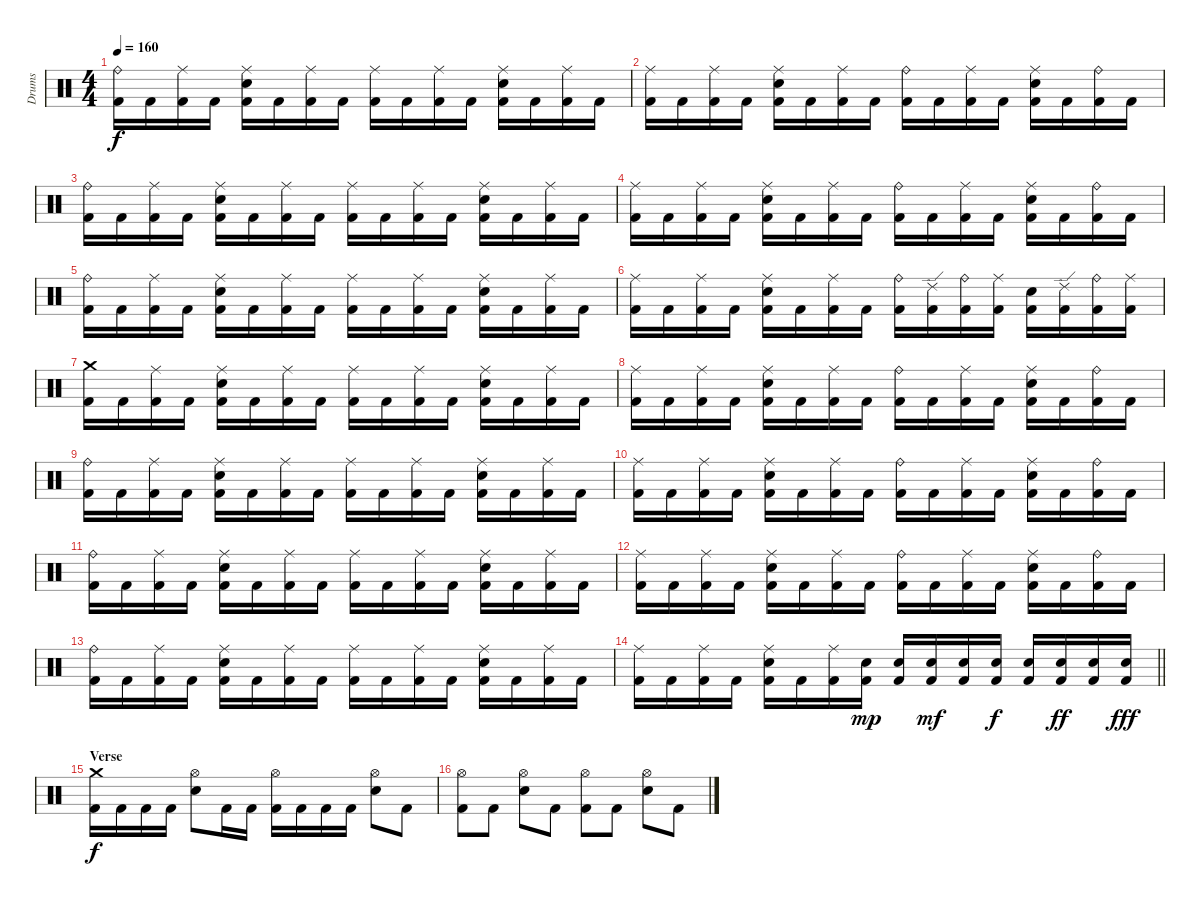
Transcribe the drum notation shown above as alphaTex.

\track ("Drums" "Drums") {instrument percussion}
\staff {score}
\articulation defaults
\ts (4 4)
\tempo 160
\clef neutral
\ks c
("Ride (bell)" "Kick (hit) 2").16{dy f} "Kick (hit) 2".16 ("Ride (middle)" "Kick (hit) 2").16 "Kick (hit) 2".16 ("Ride (middle)" "Snare (hit) 2" "Kick (hit) 2").16 "Kick (hit) 2".16 ("Ride (middle)" "Kick (hit) 2").16 "Kick (hit) 2".16 ("Ride (middle)" "Kick (hit) 2").16 "Kick (hit) 2".16 ("Ride (middle)" "Kick (hit) 2").16 "Kick (hit) 2".16 ("Ride (middle)" "Snare (hit) 2" "Kick (hit) 2").16 "Kick (hit) 2".16 ("Ride (middle)" "Kick (hit) 2").16 "Kick (hit) 2".16 |
("Ride (middle)" "Kick (hit) 2").16 "Kick (hit) 2".16 ("Ride (middle)" "Kick (hit) 2").16 "Kick (hit) 2".16 ("Ride (middle)" "Snare (hit) 2" "Kick (hit) 2").16 "Kick (hit) 2".16 ("Ride (middle)" "Kick (hit) 2").16 "Kick (hit) 2".16 ("Ride (bell)" "Kick (hit) 2").16 "Kick (hit) 2".16 ("Ride (middle)" "Kick (hit) 2").16 "Kick (hit) 2".16 ("Ride (middle)" "Snare (hit) 2" "Kick (hit) 2").16 "Kick (hit) 2".16 ("Ride (bell)" "Kick (hit) 2").16 "Kick (hit) 2".16 |
("Ride (bell)" "Kick (hit) 2").16 "Kick (hit) 2".16 ("Ride (middle)" "Kick (hit) 2").16 "Kick (hit) 2".16 ("Ride (middle)" "Snare (hit) 2" "Kick (hit) 2").16 "Kick (hit) 2".16 ("Ride (middle)" "Kick (hit) 2").16 "Kick (hit) 2".16 ("Ride (middle)" "Kick (hit) 2").16 "Kick (hit) 2".16 ("Ride (middle)" "Kick (hit) 2").16 "Kick (hit) 2".16 ("Ride (middle)" "Snare (hit) 2" "Kick (hit) 2").16 "Kick (hit) 2".16 ("Ride (middle)" "Kick (hit) 2").16 "Kick (hit) 2".16 |
("Ride (middle)" "Kick (hit) 2").16 "Kick (hit) 2".16 ("Ride (middle)" "Kick (hit) 2").16 "Kick (hit) 2".16 ("Ride (middle)" "Snare (hit) 2" "Kick (hit) 2").16 "Kick (hit) 2".16 ("Ride (middle)" "Kick (hit) 2").16 "Kick (hit) 2".16 ("Ride (bell)" "Kick (hit) 2").16 "Kick (hit) 2".16 ("Ride (middle)" "Kick (hit) 2").16 "Kick (hit) 2".16 ("Ride (middle)" "Snare (hit) 2" "Kick (hit) 2").16 "Kick (hit) 2".16 ("Ride (bell)" "Kick (hit) 2").16 "Kick (hit) 2".16 |
("Ride (bell)" "Kick (hit) 2").16 "Kick (hit) 2".16 ("Ride (middle)" "Kick (hit) 2").16 "Kick (hit) 2".16 ("Ride (middle)" "Snare (hit) 2" "Kick (hit) 2").16 "Kick (hit) 2".16 ("Ride (middle)" "Kick (hit) 2").16 "Kick (hit) 2".16 ("Ride (middle)" "Kick (hit) 2").16 "Kick (hit) 2".16 ("Ride (middle)" "Kick (hit) 2").16 "Kick (hit) 2".16 ("Ride (middle)" "Snare (hit) 2" "Kick (hit) 2").16 "Kick (hit) 2".16 ("Ride (middle)" "Kick (hit) 2").16 "Kick (hit) 2".16 |
("Ride (middle)" "Kick (hit) 2").16 "Kick (hit) 2".16 ("Ride (middle)" "Kick (hit) 2").16 "Kick (hit) 2".16 ("Ride (middle)" "Snare (hit) 2" "Kick (hit) 2").16 "Kick (hit) 2".16 ("Ride (middle)" "Kick (hit) 2").16 "Kick (hit) 2".16 ("Ride (bell)" "Kick (hit) 2").16 ("Ride (edge) 2" "Kick (hit) 2").16 ("Ride (bell)" "Kick (hit) 2").16 ("Ride (middle)" "Kick (hit) 2").16 ("Snare (hit) 2" "Kick (hit) 2").16 ("Ride (edge) 2" "Kick (hit) 2").16 ("Ride (bell)" "Kick (hit) 2").16 ("Ride (middle)" "Kick (hit) 2").16 |
("Crash medium (hit)" "Kick (hit) 2").16 "Kick (hit) 2".16 ("Ride (middle)" "Kick (hit) 2").16 "Kick (hit) 2".16 ("Ride (middle)" "Snare (hit) 2" "Kick (hit) 2").16 "Kick (hit) 2".16 ("Ride (middle)" "Kick (hit) 2").16 "Kick (hit) 2".16 ("Ride (middle)" "Kick (hit) 2").16 "Kick (hit) 2".16 ("Ride (middle)" "Kick (hit) 2").16 "Kick (hit) 2".16 ("Ride (middle)" "Snare (hit) 2" "Kick (hit) 2").16 "Kick (hit) 2".16 ("Ride (middle)" "Kick (hit) 2").16 "Kick (hit) 2".16 |
("Ride (middle)" "Kick (hit) 2").16 "Kick (hit) 2".16 ("Ride (middle)" "Kick (hit) 2").16 "Kick (hit) 2".16 ("Ride (middle)" "Snare (hit) 2" "Kick (hit) 2").16 "Kick (hit) 2".16 ("Ride (middle)" "Kick (hit) 2").16 "Kick (hit) 2".16 ("Ride (bell)" "Kick (hit) 2").16 "Kick (hit) 2".16 ("Ride (middle)" "Kick (hit) 2").16 "Kick (hit) 2".16 ("Ride (middle)" "Snare (hit) 2" "Kick (hit) 2").16 "Kick (hit) 2".16 ("Ride (bell)" "Kick (hit) 2").16 "Kick (hit) 2".16 |
("Ride (bell)" "Kick (hit) 2").16 "Kick (hit) 2".16 ("Ride (middle)" "Kick (hit) 2").16 "Kick (hit) 2".16 ("Ride (middle)" "Snare (hit) 2" "Kick (hit) 2").16 "Kick (hit) 2".16 ("Ride (middle)" "Kick (hit) 2").16 "Kick (hit) 2".16 ("Ride (middle)" "Kick (hit) 2").16 "Kick (hit) 2".16 ("Ride (middle)" "Kick (hit) 2").16 "Kick (hit) 2".16 ("Ride (middle)" "Snare (hit) 2" "Kick (hit) 2").16 "Kick (hit) 2".16 ("Ride (middle)" "Kick (hit) 2").16 "Kick (hit) 2".16 |
("Ride (middle)" "Kick (hit) 2").16 "Kick (hit) 2".16 ("Ride (middle)" "Kick (hit) 2").16 "Kick (hit) 2".16 ("Ride (middle)" "Snare (hit) 2" "Kick (hit) 2").16 "Kick (hit) 2".16 ("Ride (middle)" "Kick (hit) 2").16 "Kick (hit) 2".16 ("Ride (bell)" "Kick (hit) 2").16 "Kick (hit) 2".16 ("Ride (middle)" "Kick (hit) 2").16 "Kick (hit) 2".16 ("Ride (middle)" "Snare (hit) 2" "Kick (hit) 2").16 "Kick (hit) 2".16 ("Ride (bell)" "Kick (hit) 2").16 "Kick (hit) 2".16 |
("Ride (bell)" "Kick (hit) 2").16 "Kick (hit) 2".16 ("Ride (middle)" "Kick (hit) 2").16 "Kick (hit) 2".16 ("Ride (middle)" "Snare (hit) 2" "Kick (hit) 2").16 "Kick (hit) 2".16 ("Ride (middle)" "Kick (hit) 2").16 "Kick (hit) 2".16 ("Ride (middle)" "Kick (hit) 2").16 "Kick (hit) 2".16 ("Ride (middle)" "Kick (hit) 2").16 "Kick (hit) 2".16 ("Ride (middle)" "Snare (hit) 2" "Kick (hit) 2").16 "Kick (hit) 2".16 ("Ride (middle)" "Kick (hit) 2").16 "Kick (hit) 2".16 |
("Ride (middle)" "Kick (hit) 2").16 "Kick (hit) 2".16 ("Ride (middle)" "Kick (hit) 2").16 "Kick (hit) 2".16 ("Ride (middle)" "Snare (hit) 2" "Kick (hit) 2").16 "Kick (hit) 2".16 ("Ride (middle)" "Kick (hit) 2").16 "Kick (hit) 2".16 ("Ride (bell)" "Kick (hit) 2").16 "Kick (hit) 2".16 ("Ride (middle)" "Kick (hit) 2").16 "Kick (hit) 2".16 ("Ride (middle)" "Snare (hit) 2" "Kick (hit) 2").16 "Kick (hit) 2".16 ("Ride (bell)" "Kick (hit) 2").16 "Kick (hit) 2".16 |
("Ride (bell)" "Kick (hit) 2").16 "Kick (hit) 2".16 ("Ride (middle)" "Kick (hit) 2").16 "Kick (hit) 2".16 ("Ride (middle)" "Snare (hit) 2" "Kick (hit) 2").16 "Kick (hit) 2".16 ("Ride (middle)" "Kick (hit) 2").16 "Kick (hit) 2".16 ("Ride (middle)" "Kick (hit) 2").16 "Kick (hit) 2".16 ("Ride (middle)" "Kick (hit) 2").16 "Kick (hit) 2".16 ("Ride (middle)" "Snare (hit) 2" "Kick (hit) 2").16 "Kick (hit) 2".16 ("Ride (middle)" "Kick (hit) 2").16 "Kick (hit) 2".16 |
\barLineRight lightlight
("Ride (middle)" "Kick (hit) 2").16 "Kick (hit) 2".16 ("Ride (middle)" "Kick (hit) 2").16 "Kick (hit) 2".16 ("Ride (middle)" "Snare (hit) 2" "Kick (hit) 2").16 "Kick (hit) 2".16 ("Ride (middle)" "Kick (hit) 2").16 ("Snare (hit) 2" "Kick (hit) 2").16{dy mp} ("Snare (hit) 2" "Kick (hit) 2").16 ("Snare (hit) 2" "Kick (hit) 2").16{dy mf} ("Snare (hit) 2" "Kick (hit) 2").16 ("Snare (hit) 2" "Kick (hit) 2").16{dy f} ("Snare (hit) 2" "Kick (hit) 2").16 ("Snare (hit) 2" "Kick (hit) 2").16{dy ff} ("Snare (hit) 2" "Kick (hit) 2").16 ("Snare (hit) 2" "Kick (hit) 2").16{dy fff} |
\section ("" "Verse")
("Crash medium (hit)" "Kick (hit) 2").16{dy f} "Kick (hit) 2".16 "Kick (hit) 2".16 "Kick (hit) 2".16 ("Hi-Hat (open)" "Snare (hit) 2").8 "Kick (hit) 2".16 "Kick (hit) 2".16 ("Hi-Hat (open)" "Kick (hit) 2").16 "Kick (hit) 2".16 "Kick (hit) 2".16 "Kick (hit) 2".16 ("Hi-Hat (open)" "Snare (hit) 2").8 "Kick (hit) 2".8 |
("Hi-Hat (open)" "Kick (hit) 2").8 "Kick (hit) 2".8 ("Hi-Hat (open)" "Snare (hit) 2").8 "Kick (hit) 2".8 ("Hi-Hat (open)" "Kick (hit) 2").8 "Kick (hit) 2".8 ("Hi-Hat (open)" "Snare (hit) 2").8 "Kick (hit) 2".8
